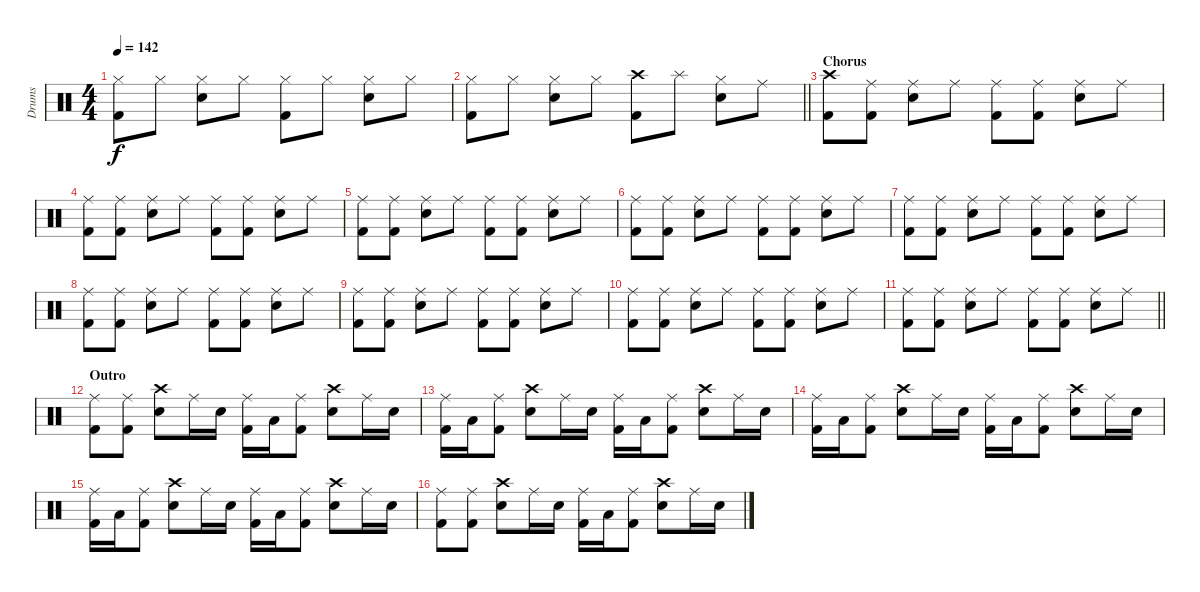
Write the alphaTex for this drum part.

\track ("Drums" "Drums") {instrument percussion}
\staff {score}
\articulation defaults
\ts (4 4)
\tempo 142
\clef neutral
\ks c
("Hi-Hat (closed)" "Kick (hit) 2").8{dy f} "Hi-Hat (closed)".8 ("Hi-Hat (closed)" "Electric Snare (hit)").8 "Hi-Hat (closed)".8 ("Hi-Hat (closed)" "Kick (hit) 2").8 "Hi-Hat (closed)".8 ("Hi-Hat (closed)" "Electric Snare (hit)").8 "Hi-Hat (closed)".8 |
\barLineRight lightlight
("Hi-Hat (closed)" "Kick (hit) 2").8 "Hi-Hat (closed)".8 ("Hi-Hat (closed)" "Electric Snare (hit)").8 "Hi-Hat (closed)".8 ("Crash high (hit)" "Kick (hit) 2").8 "Splash (hit)".8 ("Hi-Hat (closed)" "Electric Snare (hit)").8 "Ride (middle)".8 |
\section ("" "Chorus")
("Crash high (hit)" "Kick (hit) 2").8 ("Ride (middle)" "Kick (hit) 2").8 ("Ride (middle)" "Electric Snare (hit)").8 "Ride (middle)".8 ("Ride (middle)" "Kick (hit) 2").8 ("Ride (middle)" "Kick (hit) 2").8 ("Ride (middle)" "Electric Snare (hit)").8 "Ride (middle)".8 |
("Ride (middle)" "Kick (hit) 2").8 ("Ride (middle)" "Kick (hit) 2").8 ("Ride (middle)" "Electric Snare (hit)").8 "Ride (middle)".8 ("Ride (middle)" "Kick (hit) 2").8 ("Ride (middle)" "Kick (hit) 2").8 ("Ride (middle)" "Electric Snare (hit)").8 "Ride (middle)".8 |
("Ride (middle)" "Kick (hit) 2").8 ("Ride (middle)" "Kick (hit) 2").8 ("Ride (middle)" "Electric Snare (hit)").8 "Ride (middle)".8 ("Ride (middle)" "Kick (hit) 2").8 ("Ride (middle)" "Kick (hit) 2").8 ("Ride (middle)" "Electric Snare (hit)").8 "Ride (middle)".8 |
("Ride (middle)" "Kick (hit) 2").8 ("Ride (middle)" "Kick (hit) 2").8 ("Ride (middle)" "Electric Snare (hit)").8 "Ride (middle)".8 ("Ride (middle)" "Kick (hit) 2").8 ("Ride (middle)" "Kick (hit) 2").8 ("Ride (middle)" "Electric Snare (hit)").8 "Ride (middle)".8 |
("Ride (middle)" "Kick (hit) 2").8 ("Ride (middle)" "Kick (hit) 2").8 ("Ride (middle)" "Electric Snare (hit)").8 "Ride (middle)".8 ("Ride (middle)" "Kick (hit) 2").8 ("Ride (middle)" "Kick (hit) 2").8 ("Ride (middle)" "Electric Snare (hit)").8 "Ride (middle)".8 |
("Ride (middle)" "Kick (hit) 2").8 ("Ride (middle)" "Kick (hit) 2").8 ("Ride (middle)" "Electric Snare (hit)").8 "Ride (middle)".8 ("Ride (middle)" "Kick (hit) 2").8 ("Ride (middle)" "Kick (hit) 2").8 ("Ride (middle)" "Electric Snare (hit)").8 "Ride (middle)".8 |
("Ride (middle)" "Kick (hit) 2").8 ("Ride (middle)" "Kick (hit) 2").8 ("Ride (middle)" "Electric Snare (hit)").8 "Ride (middle)".8 ("Ride (middle)" "Kick (hit) 2").8 ("Ride (middle)" "Kick (hit) 2").8 ("Ride (middle)" "Electric Snare (hit)").8 "Ride (middle)".8 |
("Ride (middle)" "Kick (hit) 2").8 ("Ride (middle)" "Kick (hit) 2").8 ("Ride (middle)" "Electric Snare (hit)").8 "Ride (middle)".8 ("Ride (middle)" "Kick (hit) 2").8 ("Ride (middle)" "Kick (hit) 2").8 ("Ride (middle)" "Electric Snare (hit)").8 "Ride (middle)".8 |
\barLineRight lightlight
("Ride (middle)" "Kick (hit) 2").8 ("Ride (middle)" "Kick (hit) 2").8 ("Ride (middle)" "Electric Snare (hit)").8 "Ride (middle)".8 ("Ride (middle)" "Kick (hit) 2").8 ("Ride (middle)" "Kick (hit) 2").8 ("Ride (middle)" "Electric Snare (hit)").8 "Ride (middle)".8 |
\section ("" "Outro")
("Ride (middle)" "Kick (hit) 2").8 ("Ride (middle)" "Kick (hit) 2").8 ("Crash high (hit)" "Electric Snare (hit)").8 "Ride (middle)".16 "Electric Snare (hit)".16 ("Ride (middle)" "Kick (hit) 2").16 "Low Tom (hit)".16 ("Ride (middle)" "Kick (hit) 2").8 ("Crash high (hit)" "Electric Snare (hit)").8 "Ride (middle)".16 "Electric Snare (hit)".16 |
("Ride (middle)" "Kick (hit) 2").16 "Low Tom (hit)".16 ("Ride (middle)" "Kick (hit) 2").8 ("Crash high (hit)" "Electric Snare (hit)").8 "Ride (middle)".16 "Electric Snare (hit)".16 ("Ride (middle)" "Kick (hit) 2").16 "Low Tom (hit)".16 ("Ride (middle)" "Kick (hit) 2").8 ("Crash high (hit)" "Electric Snare (hit)").8 "Ride (middle)".16 "Electric Snare (hit)".16 |
("Ride (middle)" "Kick (hit) 2").16 "Low Tom (hit)".16 ("Ride (middle)" "Kick (hit) 2").8 ("Crash high (hit)" "Electric Snare (hit)").8 "Ride (middle)".16 "Electric Snare (hit)".16 ("Ride (middle)" "Kick (hit) 2").16 "Low Tom (hit)".16 ("Ride (middle)" "Kick (hit) 2").8 ("Crash high (hit)" "Electric Snare (hit)").8 "Ride (middle)".16 "Electric Snare (hit)".16 |
("Ride (middle)" "Kick (hit) 2").16 "Low Tom (hit)".16 ("Ride (middle)" "Kick (hit) 2").8 ("Crash high (hit)" "Electric Snare (hit)").8 "Ride (middle)".16 "Electric Snare (hit)".16 ("Ride (middle)" "Kick (hit) 2").16 "Low Tom (hit)".16 ("Ride (middle)" "Kick (hit) 2").8 ("Crash high (hit)" "Electric Snare (hit)").8 "Ride (middle)".16 "Electric Snare (hit)".16 |
("Ride (middle)" "Kick (hit) 2").8 ("Ride (middle)" "Kick (hit) 2").8 ("Crash high (hit)" "Electric Snare (hit)").8 "Ride (middle)".16 "Electric Snare (hit)".16 ("Ride (middle)" "Kick (hit) 2").16 "Low Tom (hit)".16 ("Ride (middle)" "Kick (hit) 2").8 ("Crash high (hit)" "Electric Snare (hit)").8 "Ride (middle)".16 "Electric Snare (hit)".16
